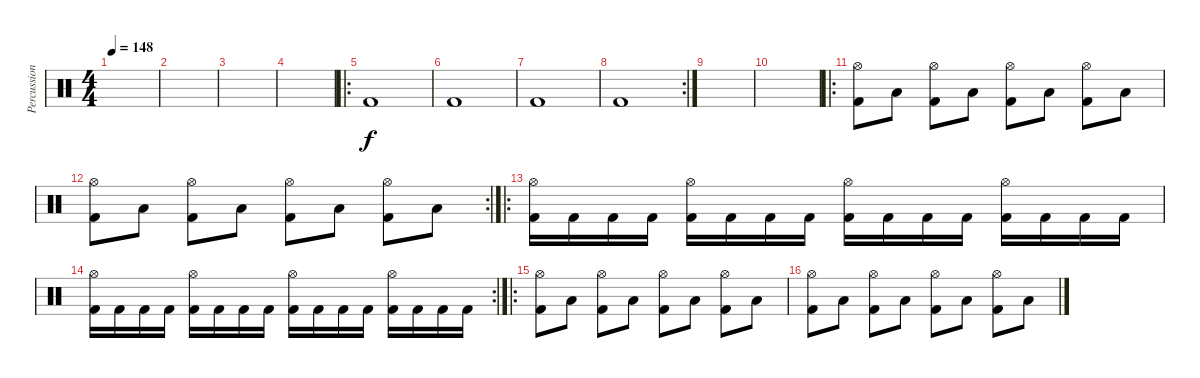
\track ("Percussion" "Percussion") {instrument percussion}
\staff {score}
\articulation defaults
\ts (4 4)
\tempo 148
\clef neutral
\ks c
|
|
|
|
\ro "Kick (hit) 2".1
|
"Kick (hit) 2".1 |
"Kick (hit) 2".1 |
\rc 2 "Kick (hit) 2".1
|
|
|
\ro
("Hi-Hat (open)" "Kick (hit) 2").8 "Low Tom (hit)".8 ("Hi-Hat (open)" "Kick (hit) 2").8 "Low Tom (hit)".8 ("Hi-Hat (open)" "Kick (hit) 2").8 "Low Tom (hit)".8 ("Hi-Hat (open)" "Kick (hit) 2").8 "Low Tom (hit)".8 |
\rc 2
("Hi-Hat (open)" "Kick (hit) 2").8 "Low Tom (hit)".8 ("Hi-Hat (open)" "Kick (hit) 2").8 "Low Tom (hit)".8 ("Hi-Hat (open)" "Kick (hit) 2").8 "Low Tom (hit)".8 ("Hi-Hat (open)" "Kick (hit) 2").8 "Low Tom (hit)".8 |
\ro
("Hi-Hat (open)" "Kick (hit) 2").16 "Kick (hit) 2".16 "Kick (hit) 2".16 "Kick (hit) 2".16 ("Hi-Hat (open)" "Kick (hit) 2").16 "Kick (hit) 2".16 "Kick (hit) 2".16 "Kick (hit) 2".16 ("Hi-Hat (open)" "Kick (hit) 2").16 "Kick (hit) 2".16 "Kick (hit) 2".16 "Kick (hit) 2".16 ("Hi-Hat (open)" "Kick (hit) 2").16 "Kick (hit) 2".16 "Kick (hit) 2".16 "Kick (hit) 2".16 |
\rc 2
("Hi-Hat (open)" "Kick (hit) 2").16 "Kick (hit) 2".16 "Kick (hit) 2".16 "Kick (hit) 2".16 ("Hi-Hat (open)" "Kick (hit) 2").16 "Kick (hit) 2".16 "Kick (hit) 2".16 "Kick (hit) 2".16 ("Hi-Hat (open)" "Kick (hit) 2").16 "Kick (hit) 2".16 "Kick (hit) 2".16 "Kick (hit) 2".16 ("Hi-Hat (open)" "Kick (hit) 2").16 "Kick (hit) 2".16 "Kick (hit) 2".16 "Kick (hit) 2".16 |
\ro
("Hi-Hat (open)" "Kick (hit) 2").8 "Low Tom (hit)".8 ("Hi-Hat (open)" "Kick (hit) 2").8 "Low Tom (hit)".8 ("Hi-Hat (open)" "Kick (hit) 2").8 "Low Tom (hit)".8 ("Hi-Hat (open)" "Kick (hit) 2").8 "Low Tom (hit)".8 |
("Hi-Hat (open)" "Kick (hit) 2").8 "Low Tom (hit)".8 ("Hi-Hat (open)" "Kick (hit) 2").8 "Low Tom (hit)".8 ("Hi-Hat (open)" "Kick (hit) 2").8 "Low Tom (hit)".8 ("Hi-Hat (open)" "Kick (hit) 2").8 "Low Tom (hit)".8
